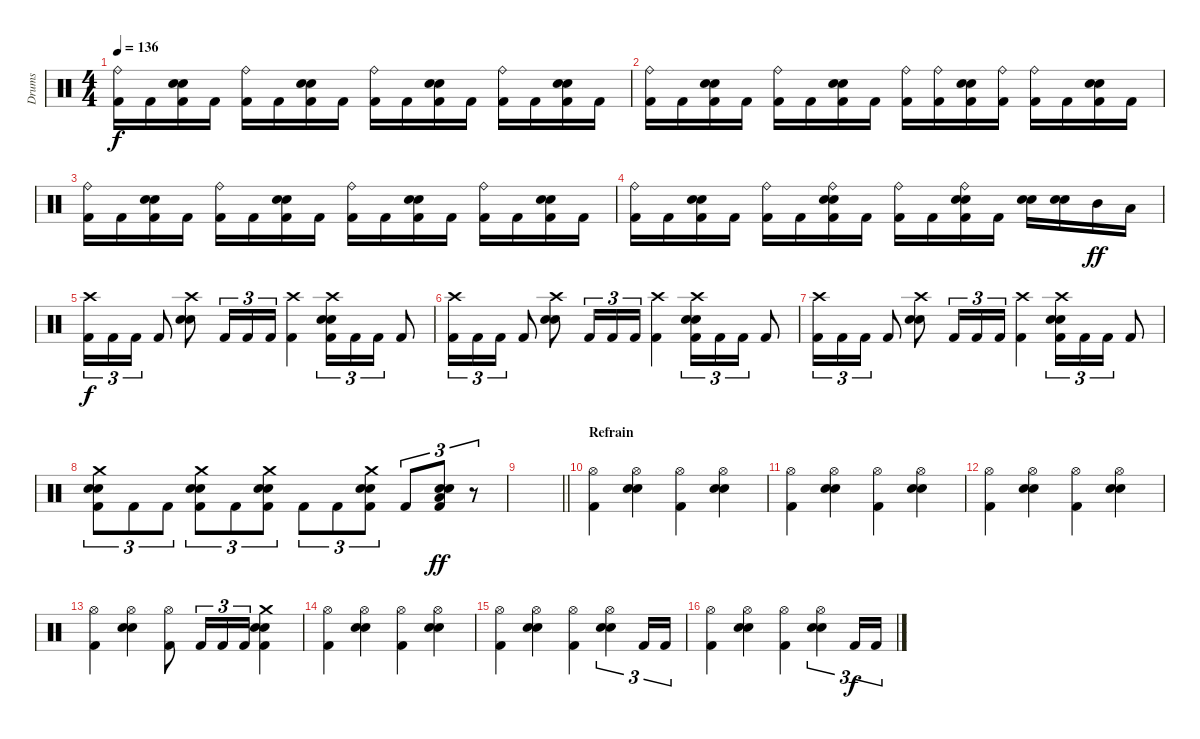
\track ("Drums" "Drums") {instrument percussion}
\staff {score}
\articulation defaults
\ts (4 4)
\tempo 136
\clef neutral
\ks c
("Ride (bell)" "Kick (hit) 2").16{dy f} "Kick (hit) 2".16 ("Electric Snare (hit)" "Snare (hit) 2" "Kick (hit) 2").16 "Kick (hit) 2".16 ("Ride (bell)" "Kick (hit) 2").16 "Kick (hit) 2".16 ("Electric Snare (hit)" "Snare (hit) 2" "Kick (hit) 2").16 "Kick (hit) 2".16 ("Ride (bell)" "Kick (hit) 2").16 "Kick (hit) 2".16 ("Electric Snare (hit)" "Snare (hit) 2" "Kick (hit) 2").16 "Kick (hit) 2".16 ("Ride (bell)" "Kick (hit) 2").16 "Kick (hit) 2".16 ("Electric Snare (hit)" "Snare (hit) 2" "Kick (hit) 2").16 "Kick (hit) 2".16 |
("Ride (bell)" "Kick (hit) 2").16 "Kick (hit) 2".16 ("Electric Snare (hit)" "Snare (hit) 2" "Kick (hit) 2").16 "Kick (hit) 2".16 ("Ride (bell)" "Kick (hit) 2").16 "Kick (hit) 2".16 ("Electric Snare (hit)" "Snare (hit) 2" "Kick (hit) 2").16 "Kick (hit) 2".16 ("Ride (bell)" "Kick (hit) 2").16 ("Ride (bell)" "Kick (hit) 2").16 ("Electric Snare (hit)" "Snare (hit) 2" "Kick (hit) 2").16 ("Ride (bell)" "Kick (hit) 2").16 ("Ride (bell)" "Kick (hit) 2").16 "Kick (hit) 2".16 ("Electric Snare (hit)" "Snare (hit) 2" "Kick (hit) 2").16 "Kick (hit) 2".16 |
("Ride (bell)" "Kick (hit) 2").16 "Kick (hit) 2".16 ("Electric Snare (hit)" "Snare (hit) 2" "Kick (hit) 2").16 "Kick (hit) 2".16 ("Ride (bell)" "Kick (hit) 2").16 "Kick (hit) 2".16 ("Electric Snare (hit)" "Snare (hit) 2" "Kick (hit) 2").16 "Kick (hit) 2".16 ("Ride (bell)" "Kick (hit) 2").16 "Kick (hit) 2".16 ("Electric Snare (hit)" "Snare (hit) 2" "Kick (hit) 2").16 "Kick (hit) 2".16 ("Ride (bell)" "Kick (hit) 2").16 "Kick (hit) 2".16 ("Electric Snare (hit)" "Snare (hit) 2" "Kick (hit) 2").16 "Kick (hit) 2".16 |
("Ride (bell)" "Kick (hit) 2").16 "Kick (hit) 2".16 ("Electric Snare (hit)" "Snare (hit) 2" "Kick (hit) 2").16 "Kick (hit) 2".16 ("Ride (bell)" "Kick (hit) 2").16 "Kick (hit) 2".16 ("Ride (bell)" "Electric Snare (hit)" "Snare (hit) 2" "Kick (hit) 2").16 "Kick (hit) 2".16 ("Ride (bell)" "Kick (hit) 2").16 "Kick (hit) 2".16 ("Ride (bell)" "Electric Snare (hit)" "Snare (hit) 2" "Kick (hit) 2").16 "Kick (hit) 2".16 ("Electric Snare (hit)" "Snare (hit) 2").16 ("Electric Snare (hit)" "Snare (hit) 2").16 "Mid Tom (hit)".16{dy ff} "Low Tom (hit)".16 |
("Crash high (hit)" "Kick (hit) 2").16{tu (3 2) dy f} "Kick (hit) 2".16{tu (3 2)} "Kick (hit) 2".16{tu (3 2)} "Kick (hit) 2".8 ("Crash high (hit)" "Electric Snare (hit)" "Snare (hit) 2").8 "Kick (hit) 2".16{tu (3 2)} "Kick (hit) 2".16{tu (3 2)} "Kick (hit) 2".16{tu (3 2)} ("Crash high (hit)" "Kick (hit) 2").4 ("Crash high (hit)" "Electric Snare (hit)" "Snare (hit) 2" "Kick (hit) 2").16{tu (3 2)} "Kick (hit) 2".16{tu (3 2)} "Kick (hit) 2".16{tu (3 2)} "Kick (hit) 2".8 |
("Crash high (hit)" "Kick (hit) 2").16{tu (3 2)} "Kick (hit) 2".16{tu (3 2)} "Kick (hit) 2".16{tu (3 2)} "Kick (hit) 2".8 ("Crash high (hit)" "Electric Snare (hit)" "Snare (hit) 2").8 "Kick (hit) 2".16{tu (3 2)} "Kick (hit) 2".16{tu (3 2)} "Kick (hit) 2".16{tu (3 2)} ("Crash high (hit)" "Kick (hit) 2").4 ("Crash high (hit)" "Electric Snare (hit)" "Snare (hit) 2" "Kick (hit) 2").16{tu (3 2)} "Kick (hit) 2".16{tu (3 2)} "Kick (hit) 2".16{tu (3 2)} "Kick (hit) 2".8 |
("Crash high (hit)" "Kick (hit) 2").16{tu (3 2)} "Kick (hit) 2".16{tu (3 2)} "Kick (hit) 2".16{tu (3 2)} "Kick (hit) 2".8 ("Crash high (hit)" "Electric Snare (hit)" "Snare (hit) 2").8 "Kick (hit) 2".16{tu (3 2)} "Kick (hit) 2".16{tu (3 2)} "Kick (hit) 2".16{tu (3 2)} ("Crash high (hit)" "Kick (hit) 2").4 ("Crash high (hit)" "Electric Snare (hit)" "Snare (hit) 2" "Kick (hit) 2").16{tu (3 2)} "Kick (hit) 2".16{tu (3 2)} "Kick (hit) 2".16{tu (3 2)} "Kick (hit) 2".8 |
("Crash medium (hit)" "Electric Snare (hit)" "Snare (hit) 2" "Kick (hit) 2").8{tu (3 2)} "Kick (hit) 2".8{tu (3 2)} "Kick (hit) 2".8{tu (3 2)} ("Crash medium (hit)" "Electric Snare (hit)" "Snare (hit) 2" "Kick (hit) 2").8{tu (3 2)} "Kick (hit) 2".8{tu (3 2)} ("Crash medium (hit)" "Electric Snare (hit)" "Snare (hit) 2" "Kick (hit) 2").8{tu (3 2)} "Kick (hit) 2".8{tu (3 2)} "Kick (hit) 2".8{tu (3 2)} ("Crash medium (hit)" "Electric Snare (hit)" "Snare (hit) 2" "Kick (hit) 2").8{tu (3 2)} "Kick (hit) 2".8{tu (3 2)} ("Electric Snare (hit)" "Snare (hit) 2" "Low Tom (hit)" "Kick (hit) 2").8{tu (3 2) dy ff} r.8{tu (3 2)} |
\barLineRight lightlight
|
\section ("" "Refrain")
("Hi-Hat (open)" "Kick (hit) 2").4 ("Hi-Hat (open)" "Electric Snare (hit)" "Snare (hit) 2").4 ("Hi-Hat (open)" "Kick (hit) 2").4 ("Hi-Hat (open)" "Electric Snare (hit)" "Snare (hit) 2").4 |
("Hi-Hat (open)" "Kick (hit) 2").4 ("Hi-Hat (open)" "Electric Snare (hit)" "Snare (hit) 2").4 ("Hi-Hat (open)" "Kick (hit) 2").4 ("Hi-Hat (open)" "Electric Snare (hit)" "Snare (hit) 2").4 |
("Hi-Hat (open)" "Kick (hit) 2").4 ("Hi-Hat (open)" "Electric Snare (hit)" "Snare (hit) 2").4 ("Hi-Hat (open)" "Kick (hit) 2").4 ("Hi-Hat (open)" "Electric Snare (hit)" "Snare (hit) 2").4 |
("Hi-Hat (open)" "Kick (hit) 2").4 ("Hi-Hat (open)" "Electric Snare (hit)" "Snare (hit) 2").4 ("Hi-Hat (open)" "Kick (hit) 2").8 "Kick (hit) 2".16{tu (3 2)} "Kick (hit) 2".16{tu (3 2)} "Kick (hit) 2".16{tu (3 2)} ("Crash medium (hit)" "Electric Snare (hit)" "Snare (hit) 2" "Kick (hit) 2").4 |
("Hi-Hat (open)" "Kick (hit) 2").4 ("Hi-Hat (open)" "Electric Snare (hit)" "Snare (hit) 2").4 ("Hi-Hat (open)" "Kick (hit) 2").4 ("Hi-Hat (open)" "Electric Snare (hit)" "Snare (hit) 2").4 |
("Hi-Hat (open)" "Kick (hit) 2").4 ("Hi-Hat (open)" "Electric Snare (hit)" "Snare (hit) 2").4 ("Hi-Hat (open)" "Kick (hit) 2").4 ("Hi-Hat (open)" "Electric Snare (hit)" "Snare (hit) 2").4{tu (3 2)} "Kick (hit) 2".16{tu (3 2)} "Kick (hit) 2".16{tu (3 2)} |
("Hi-Hat (open)" "Kick (hit) 2").4 ("Hi-Hat (open)" "Electric Snare (hit)" "Snare (hit) 2").4 ("Hi-Hat (open)" "Kick (hit) 2").4 ("Hi-Hat (open)" "Electric Snare (hit)" "Snare (hit) 2").4{tu (3 2)} "Kick (hit) 2".16{tu (3 2) dy f} "Kick (hit) 2".16{tu (3 2)}
